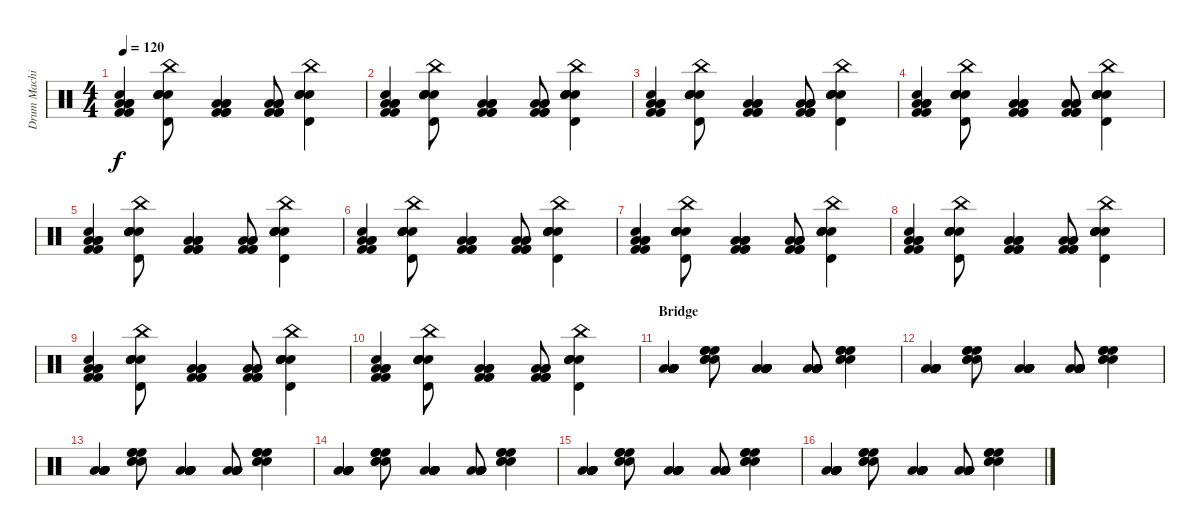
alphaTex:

\track ("Drum Machine" "Drum Machi") {instrument percussion}
\staff {score}
\articulation defaults
\ts (4 4)
\tempo 120
\clef neutral
\ks c
("Electric Snare (hit)" "Low Floor Tom (hit)" "Kick (hit) 2" "Low Floor Tom (hit)" "Kick (hit) 2" "Low Floor Tom (hit)").4{dy f} ("Timbale high (hit)" "China (hit)" "Electric Snare (hit)" "Electric Snare (hit)" "Electric Snare (hit)" "Electric Snare (hit)").8 ("Kick (hit) 2" "Low Floor Tom (hit)" "Kick (hit) 2" "Low Floor Tom (hit)" "Kick (hit) 2" "Low Floor Tom (hit)").4 ("Kick (hit) 2" "Low Floor Tom (hit)" "Kick (hit) 2" "Low Floor Tom (hit)" "Kick (hit) 2" "Low Floor Tom (hit)").8 ("Timbale high (hit)" "China (hit)" "Electric Snare (hit)" "Electric Snare (hit)" "Electric Snare (hit)" "Electric Snare (hit)").4 |
("Electric Snare (hit)" "Low Floor Tom (hit)" "Kick (hit) 2" "Low Floor Tom (hit)" "Kick (hit) 2" "Low Floor Tom (hit)").4 ("Timbale high (hit)" "China (hit)" "Electric Snare (hit)" "Electric Snare (hit)" "Electric Snare (hit)" "Electric Snare (hit)").8 ("Kick (hit) 2" "Low Floor Tom (hit)" "Kick (hit) 2" "Low Floor Tom (hit)" "Kick (hit) 2" "Low Floor Tom (hit)").4 ("Kick (hit) 2" "Low Floor Tom (hit)" "Kick (hit) 2" "Low Floor Tom (hit)" "Kick (hit) 2" "Low Floor Tom (hit)").8 ("Timbale high (hit)" "China (hit)" "Electric Snare (hit)" "Electric Snare (hit)" "Electric Snare (hit)" "Electric Snare (hit)").4 |
("Electric Snare (hit)" "Low Floor Tom (hit)" "Kick (hit) 2" "Low Floor Tom (hit)" "Kick (hit) 2" "Low Floor Tom (hit)").4 ("Timbale high (hit)" "China (hit)" "Electric Snare (hit)" "Electric Snare (hit)" "Electric Snare (hit)" "Electric Snare (hit)").8 ("Kick (hit) 2" "Low Floor Tom (hit)" "Kick (hit) 2" "Low Floor Tom (hit)" "Kick (hit) 2" "Low Floor Tom (hit)").4 ("Kick (hit) 2" "Low Floor Tom (hit)" "Kick (hit) 2" "Low Floor Tom (hit)" "Kick (hit) 2" "Low Floor Tom (hit)").8 ("Timbale high (hit)" "China (hit)" "Electric Snare (hit)" "Electric Snare (hit)" "Electric Snare (hit)" "Electric Snare (hit)").4 |
("Electric Snare (hit)" "Low Floor Tom (hit)" "Kick (hit) 2" "Low Floor Tom (hit)" "Kick (hit) 2" "Low Floor Tom (hit)").4 ("Timbale high (hit)" "China (hit)" "Electric Snare (hit)" "Electric Snare (hit)" "Electric Snare (hit)" "Electric Snare (hit)").8 ("Kick (hit) 2" "Low Floor Tom (hit)" "Kick (hit) 2" "Low Floor Tom (hit)" "Kick (hit) 2" "Low Floor Tom (hit)").4 ("Kick (hit) 2" "Low Floor Tom (hit)" "Kick (hit) 2" "Low Floor Tom (hit)" "Kick (hit) 2" "Low Floor Tom (hit)").8 ("Timbale high (hit)" "China (hit)" "Electric Snare (hit)" "Electric Snare (hit)" "Electric Snare (hit)" "Electric Snare (hit)").4 |
("Electric Snare (hit)" "Low Floor Tom (hit)" "Kick (hit) 2" "Low Floor Tom (hit)" "Kick (hit) 2" "Low Floor Tom (hit)").4 ("Timbale high (hit)" "China (hit)" "Electric Snare (hit)" "Electric Snare (hit)" "Electric Snare (hit)" "Electric Snare (hit)").8 ("Kick (hit) 2" "Low Floor Tom (hit)" "Kick (hit) 2" "Low Floor Tom (hit)" "Kick (hit) 2" "Low Floor Tom (hit)").4 ("Kick (hit) 2" "Low Floor Tom (hit)" "Kick (hit) 2" "Low Floor Tom (hit)" "Kick (hit) 2" "Low Floor Tom (hit)").8 ("Timbale high (hit)" "China (hit)" "Electric Snare (hit)" "Electric Snare (hit)" "Electric Snare (hit)" "Electric Snare (hit)").4 |
("Electric Snare (hit)" "Low Floor Tom (hit)" "Kick (hit) 2" "Low Floor Tom (hit)" "Kick (hit) 2" "Low Floor Tom (hit)").4 ("Timbale high (hit)" "China (hit)" "Electric Snare (hit)" "Electric Snare (hit)" "Electric Snare (hit)" "Electric Snare (hit)").8 ("Kick (hit) 2" "Low Floor Tom (hit)" "Kick (hit) 2" "Low Floor Tom (hit)" "Kick (hit) 2" "Low Floor Tom (hit)").4 ("Kick (hit) 2" "Low Floor Tom (hit)" "Kick (hit) 2" "Low Floor Tom (hit)" "Kick (hit) 2" "Low Floor Tom (hit)").8 ("Timbale high (hit)" "China (hit)" "Electric Snare (hit)" "Electric Snare (hit)" "Electric Snare (hit)" "Electric Snare (hit)").4 |
("Electric Snare (hit)" "Low Floor Tom (hit)" "Kick (hit) 2" "Low Floor Tom (hit)" "Kick (hit) 2" "Low Floor Tom (hit)").4 ("Timbale high (hit)" "China (hit)" "Electric Snare (hit)" "Electric Snare (hit)" "Electric Snare (hit)" "Electric Snare (hit)").8 ("Kick (hit) 2" "Low Floor Tom (hit)" "Kick (hit) 2" "Low Floor Tom (hit)" "Kick (hit) 2" "Low Floor Tom (hit)").4 ("Kick (hit) 2" "Low Floor Tom (hit)" "Kick (hit) 2" "Low Floor Tom (hit)" "Kick (hit) 2" "Low Floor Tom (hit)").8 ("Timbale high (hit)" "China (hit)" "Electric Snare (hit)" "Electric Snare (hit)" "Electric Snare (hit)" "Electric Snare (hit)").4 |
("Electric Snare (hit)" "Low Floor Tom (hit)" "Kick (hit) 2" "Low Floor Tom (hit)" "Kick (hit) 2" "Low Floor Tom (hit)").4 ("Timbale high (hit)" "China (hit)" "Electric Snare (hit)" "Electric Snare (hit)" "Electric Snare (hit)" "Electric Snare (hit)").8 ("Kick (hit) 2" "Low Floor Tom (hit)" "Kick (hit) 2" "Low Floor Tom (hit)" "Kick (hit) 2" "Low Floor Tom (hit)").4 ("Kick (hit) 2" "Low Floor Tom (hit)" "Kick (hit) 2" "Low Floor Tom (hit)" "Kick (hit) 2" "Low Floor Tom (hit)").8 ("Timbale high (hit)" "China (hit)" "Electric Snare (hit)" "Electric Snare (hit)" "Electric Snare (hit)" "Electric Snare (hit)").4 |
("Electric Snare (hit)" "Low Floor Tom (hit)" "Kick (hit) 2" "Low Floor Tom (hit)" "Kick (hit) 2" "Low Floor Tom (hit)").4 ("Timbale high (hit)" "China (hit)" "Electric Snare (hit)" "Electric Snare (hit)" "Electric Snare (hit)" "Electric Snare (hit)").8 ("Kick (hit) 2" "Low Floor Tom (hit)" "Kick (hit) 2" "Low Floor Tom (hit)" "Kick (hit) 2" "Low Floor Tom (hit)").4 ("Kick (hit) 2" "Low Floor Tom (hit)" "Kick (hit) 2" "Low Floor Tom (hit)" "Kick (hit) 2" "Low Floor Tom (hit)").8 ("Timbale high (hit)" "China (hit)" "Electric Snare (hit)" "Electric Snare (hit)" "Electric Snare (hit)" "Electric Snare (hit)").4 |
("Electric Snare (hit)" "Low Floor Tom (hit)" "Kick (hit) 2" "Low Floor Tom (hit)" "Kick (hit) 2" "Low Floor Tom (hit)").4 ("Timbale high (hit)" "China (hit)" "Electric Snare (hit)" "Electric Snare (hit)" "Electric Snare (hit)" "Electric Snare (hit)").8 ("Kick (hit) 2" "Low Floor Tom (hit)" "Kick (hit) 2" "Low Floor Tom (hit)" "Kick (hit) 2" "Low Floor Tom (hit)").4 ("Kick (hit) 2" "Low Floor Tom (hit)" "Kick (hit) 2" "Low Floor Tom (hit)" "Kick (hit) 2" "Low Floor Tom (hit)").8 ("Timbale high (hit)" "China (hit)" "Electric Snare (hit)" "Electric Snare (hit)" "Electric Snare (hit)" "Electric Snare (hit)").4 |
\section ("" "Bridge")
("Low Floor Tom (hit)" "Low Floor Tom (hit)" "Low Floor Tom (hit)" "Low Floor Tom (hit)" "Low Floor Tom (hit)" "Low Floor Tom (hit)").4 ("Electric Snare (hit)" "High Floor Tom (hit)" "Electric Snare (hit)" "High Floor Tom (hit)" "Electric Snare (hit)" "High Floor Tom (hit)").8 ("Low Floor Tom (hit)" "Low Floor Tom (hit)" "Low Floor Tom (hit)" "Low Floor Tom (hit)" "Low Floor Tom (hit)" "Low Floor Tom (hit)").4 ("Low Floor Tom (hit)" "Low Floor Tom (hit)" "Low Floor Tom (hit)" "Low Floor Tom (hit)" "Low Floor Tom (hit)" "Low Floor Tom (hit)").8 ("Electric Snare (hit)" "High Floor Tom (hit)" "Electric Snare (hit)" "High Floor Tom (hit)" "Electric Snare (hit)" "High Floor Tom (hit)").4 |
("Low Floor Tom (hit)" "Low Floor Tom (hit)" "Low Floor Tom (hit)" "Low Floor Tom (hit)" "Low Floor Tom (hit)" "Low Floor Tom (hit)").4 ("Electric Snare (hit)" "High Floor Tom (hit)" "Electric Snare (hit)" "High Floor Tom (hit)" "Electric Snare (hit)" "High Floor Tom (hit)").8 ("Low Floor Tom (hit)" "Low Floor Tom (hit)" "Low Floor Tom (hit)" "Low Floor Tom (hit)" "Low Floor Tom (hit)" "Low Floor Tom (hit)").4 ("Low Floor Tom (hit)" "Low Floor Tom (hit)" "Low Floor Tom (hit)" "Low Floor Tom (hit)" "Low Floor Tom (hit)" "Low Floor Tom (hit)").8 ("Electric Snare (hit)" "High Floor Tom (hit)" "Electric Snare (hit)" "High Floor Tom (hit)" "Electric Snare (hit)" "High Floor Tom (hit)").4 |
("Low Floor Tom (hit)" "Low Floor Tom (hit)" "Low Floor Tom (hit)" "Low Floor Tom (hit)" "Low Floor Tom (hit)" "Low Floor Tom (hit)").4 ("Electric Snare (hit)" "High Floor Tom (hit)" "Electric Snare (hit)" "High Floor Tom (hit)" "Electric Snare (hit)" "High Floor Tom (hit)").8 ("Low Floor Tom (hit)" "Low Floor Tom (hit)" "Low Floor Tom (hit)" "Low Floor Tom (hit)" "Low Floor Tom (hit)" "Low Floor Tom (hit)").4 ("Low Floor Tom (hit)" "Low Floor Tom (hit)" "Low Floor Tom (hit)" "Low Floor Tom (hit)" "Low Floor Tom (hit)" "Low Floor Tom (hit)").8 ("Electric Snare (hit)" "High Floor Tom (hit)" "Electric Snare (hit)" "High Floor Tom (hit)" "Electric Snare (hit)" "High Floor Tom (hit)").4 |
("Low Floor Tom (hit)" "Low Floor Tom (hit)" "Low Floor Tom (hit)" "Low Floor Tom (hit)" "Low Floor Tom (hit)" "Low Floor Tom (hit)").4 ("Electric Snare (hit)" "High Floor Tom (hit)" "Electric Snare (hit)" "High Floor Tom (hit)" "Electric Snare (hit)" "High Floor Tom (hit)").8 ("Low Floor Tom (hit)" "Low Floor Tom (hit)" "Low Floor Tom (hit)" "Low Floor Tom (hit)" "Low Floor Tom (hit)" "Low Floor Tom (hit)").4 ("Low Floor Tom (hit)" "Low Floor Tom (hit)" "Low Floor Tom (hit)" "Low Floor Tom (hit)" "Low Floor Tom (hit)" "Low Floor Tom (hit)").8 ("Electric Snare (hit)" "High Floor Tom (hit)" "Electric Snare (hit)" "High Floor Tom (hit)" "Electric Snare (hit)" "High Floor Tom (hit)").4 |
("Low Floor Tom (hit)" "Low Floor Tom (hit)" "Low Floor Tom (hit)" "Low Floor Tom (hit)" "Low Floor Tom (hit)" "Low Floor Tom (hit)").4 ("Electric Snare (hit)" "High Floor Tom (hit)" "Electric Snare (hit)" "High Floor Tom (hit)" "Electric Snare (hit)" "High Floor Tom (hit)").8 ("Low Floor Tom (hit)" "Low Floor Tom (hit)" "Low Floor Tom (hit)" "Low Floor Tom (hit)" "Low Floor Tom (hit)" "Low Floor Tom (hit)").4 ("Low Floor Tom (hit)" "Low Floor Tom (hit)" "Low Floor Tom (hit)" "Low Floor Tom (hit)" "Low Floor Tom (hit)" "Low Floor Tom (hit)").8 ("Electric Snare (hit)" "High Floor Tom (hit)" "Electric Snare (hit)" "High Floor Tom (hit)" "Electric Snare (hit)" "High Floor Tom (hit)").4 |
("Low Floor Tom (hit)" "Low Floor Tom (hit)" "Low Floor Tom (hit)" "Low Floor Tom (hit)" "Low Floor Tom (hit)" "Low Floor Tom (hit)").4 ("Electric Snare (hit)" "High Floor Tom (hit)" "Electric Snare (hit)" "High Floor Tom (hit)" "Electric Snare (hit)" "High Floor Tom (hit)").8 ("Low Floor Tom (hit)" "Low Floor Tom (hit)" "Low Floor Tom (hit)" "Low Floor Tom (hit)" "Low Floor Tom (hit)" "Low Floor Tom (hit)").4 ("Low Floor Tom (hit)" "Low Floor Tom (hit)" "Low Floor Tom (hit)" "Low Floor Tom (hit)" "Low Floor Tom (hit)" "Low Floor Tom (hit)").8 ("Electric Snare (hit)" "High Floor Tom (hit)" "Electric Snare (hit)" "High Floor Tom (hit)" "Electric Snare (hit)" "High Floor Tom (hit)").4
